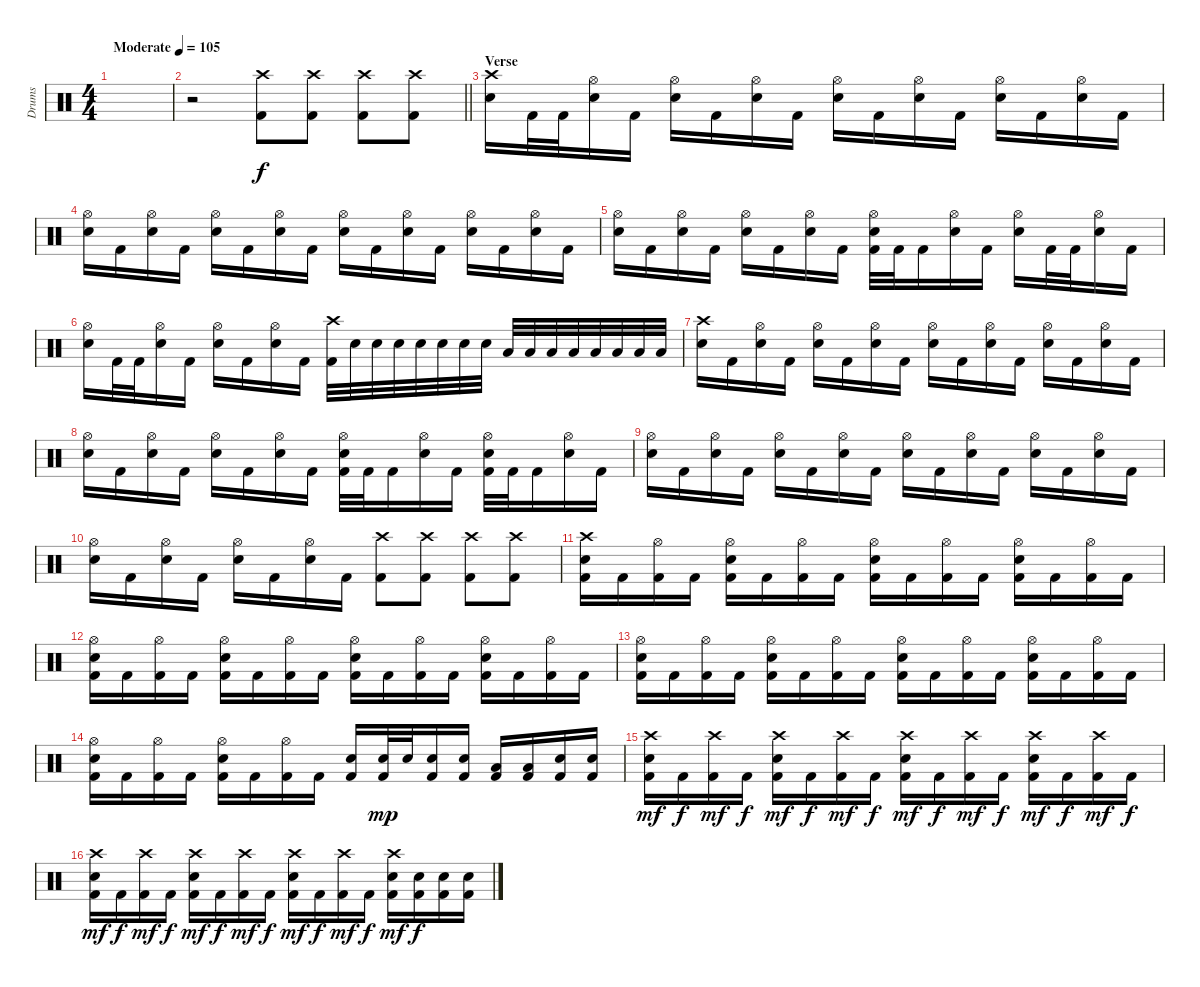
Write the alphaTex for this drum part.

\track ("Drums" "Drums") {instrument percussion}
\staff {score}
\articulation defaults
\ts (4 4)
\tempo (105 "Moderate")
\clef neutral
\ks c
|
\barLineRight lightlight
r.2 ("Crash high (hit)" "Kick (hit) 2").8 ("Crash high (hit)" "Kick (hit) 2").8 ("Crash high (hit)" "Kick (hit) 2").8 ("Crash high (hit)" "Kick (hit) 2").8 |
\section ("" "Verse")
("Crash high (hit)" "Electric Snare (hit)").16 "Kick (hit) 2".32 "Kick (hit) 2".32 ("Hi-Hat (open)" "Electric Snare (hit)").16 "Kick (hit) 2".16 ("Hi-Hat (open)" "Electric Snare (hit)").16 "Kick (hit) 2".16 ("Hi-Hat (open)" "Electric Snare (hit)").16 "Kick (hit) 2".16 ("Hi-Hat (open)" "Electric Snare (hit)").16 "Kick (hit) 2".16 ("Hi-Hat (open)" "Electric Snare (hit)").16 "Kick (hit) 2".16 ("Hi-Hat (open)" "Electric Snare (hit)").16 "Kick (hit) 2".16 ("Hi-Hat (open)" "Electric Snare (hit)").16 "Kick (hit) 2".16 |
("Hi-Hat (open)" "Electric Snare (hit)").16 "Kick (hit) 2".16 ("Hi-Hat (open)" "Electric Snare (hit)").16 "Kick (hit) 2".16 ("Hi-Hat (open)" "Electric Snare (hit)").16 "Kick (hit) 2".16 ("Hi-Hat (open)" "Electric Snare (hit)").16 "Kick (hit) 2".16 ("Hi-Hat (open)" "Electric Snare (hit)").16 "Kick (hit) 2".16 ("Hi-Hat (open)" "Electric Snare (hit)").16 "Kick (hit) 2".16 ("Hi-Hat (open)" "Electric Snare (hit)").16 "Kick (hit) 2".16 ("Hi-Hat (open)" "Electric Snare (hit)").16 "Kick (hit) 2".16 |
("Hi-Hat (open)" "Electric Snare (hit)").16 "Kick (hit) 2".16 ("Hi-Hat (open)" "Electric Snare (hit)").16 "Kick (hit) 2".16 ("Hi-Hat (open)" "Electric Snare (hit)").16 "Kick (hit) 2".16 ("Hi-Hat (open)" "Electric Snare (hit)").16 "Kick (hit) 2".16 ("Hi-Hat (open)" "Electric Snare (hit)" "Kick (hit) 2").32 "Kick (hit) 2".32 "Kick (hit) 2".16 ("Hi-Hat (open)" "Electric Snare (hit)").16 "Kick (hit) 2".16 ("Hi-Hat (open)" "Electric Snare (hit)").16 "Kick (hit) 2".32 "Kick (hit) 2".32 ("Hi-Hat (open)" "Electric Snare (hit)").16 "Kick (hit) 2".16 |
("Hi-Hat (open)" "Electric Snare (hit)").16 "Kick (hit) 2".32 "Kick (hit) 2".32 ("Hi-Hat (open)" "Electric Snare (hit)").16 "Kick (hit) 2".16 ("Hi-Hat (open)" "Electric Snare (hit)").16 "Kick (hit) 2".16 ("Hi-Hat (open)" "Electric Snare (hit)").16 "Kick (hit) 2".16 ("Crash high (hit)" "Kick (hit) 2").32 "Electric Snare (hit)".32 "Electric Snare (hit)".32 "Electric Snare (hit)".32 "Electric Snare (hit)".32 "Electric Snare (hit)".32 "Electric Snare (hit)".32 "Electric Snare (hit)".32 "Low Tom (hit)".32 "Low Tom (hit)".32 "Low Tom (hit)".32 "Low Tom (hit)".32 "Low Tom (hit)".32 "Low Tom (hit)".32 "Low Tom (hit)".32 "Low Tom (hit)".32 |
("Crash high (hit)" "Electric Snare (hit)").16 "Kick (hit) 2".16 ("Hi-Hat (open)" "Electric Snare (hit)").16 "Kick (hit) 2".16 ("Hi-Hat (open)" "Electric Snare (hit)").16 "Kick (hit) 2".16 ("Hi-Hat (open)" "Electric Snare (hit)").16 "Kick (hit) 2".16 ("Hi-Hat (open)" "Electric Snare (hit)").16 "Kick (hit) 2".16 ("Hi-Hat (open)" "Electric Snare (hit)").16 "Kick (hit) 2".16 ("Hi-Hat (open)" "Electric Snare (hit)").16 "Kick (hit) 2".16 ("Hi-Hat (open)" "Electric Snare (hit)").16 "Kick (hit) 2".16 |
("Hi-Hat (open)" "Electric Snare (hit)").16 "Kick (hit) 2".16 ("Hi-Hat (open)" "Electric Snare (hit)").16 "Kick (hit) 2".16 ("Hi-Hat (open)" "Electric Snare (hit)").16 "Kick (hit) 2".16 ("Hi-Hat (open)" "Electric Snare (hit)").16 "Kick (hit) 2".16 ("Hi-Hat (open)" "Electric Snare (hit)" "Kick (hit) 2").32 "Kick (hit) 2".32 "Kick (hit) 2".16 ("Hi-Hat (open)" "Electric Snare (hit)").16 "Kick (hit) 2".16 ("Hi-Hat (open)" "Electric Snare (hit)" "Kick (hit) 2").32 "Kick (hit) 2".32 "Kick (hit) 2".16 ("Hi-Hat (open)" "Electric Snare (hit)").16 "Kick (hit) 2".16 |
("Hi-Hat (open)" "Electric Snare (hit)").16 "Kick (hit) 2".16 ("Hi-Hat (open)" "Electric Snare (hit)").16 "Kick (hit) 2".16 ("Hi-Hat (open)" "Electric Snare (hit)").16 "Kick (hit) 2".16 ("Hi-Hat (open)" "Electric Snare (hit)").16 "Kick (hit) 2".16 ("Hi-Hat (open)" "Electric Snare (hit)").16 "Kick (hit) 2".16 ("Hi-Hat (open)" "Electric Snare (hit)").16 "Kick (hit) 2".16 ("Hi-Hat (open)" "Electric Snare (hit)").16 "Kick (hit) 2".16 ("Hi-Hat (open)" "Electric Snare (hit)").16 "Kick (hit) 2".16 |
("Hi-Hat (open)" "Electric Snare (hit)").16 "Kick (hit) 2".16 ("Hi-Hat (open)" "Electric Snare (hit)").16 "Kick (hit) 2".16 ("Hi-Hat (open)" "Electric Snare (hit)").16 "Kick (hit) 2".16 ("Hi-Hat (open)" "Electric Snare (hit)").16 "Kick (hit) 2".16 ("Crash high (hit)" "Kick (hit) 2").8 ("Crash high (hit)" "Kick (hit) 2").8 ("Crash high (hit)" "Kick (hit) 2").8 ("Crash high (hit)" "Kick (hit) 2").8 |
("Crash high (hit)" "Electric Snare (hit)" "Kick (hit) 2").16 "Kick (hit) 2".16 ("Hi-Hat (open)" "Kick (hit) 2").16 "Kick (hit) 2".16 ("Hi-Hat (open)" "Electric Snare (hit)" "Kick (hit) 2").16 "Kick (hit) 2".16 ("Hi-Hat (open)" "Kick (hit) 2").16 "Kick (hit) 2".16 ("Hi-Hat (open)" "Electric Snare (hit)" "Kick (hit) 2").16 "Kick (hit) 2".16 ("Hi-Hat (open)" "Kick (hit) 2").16 "Kick (hit) 2".16 ("Hi-Hat (open)" "Electric Snare (hit)" "Kick (hit) 2").16 "Kick (hit) 2".16 ("Hi-Hat (open)" "Kick (hit) 2").16 "Kick (hit) 2".16 |
("Hi-Hat (open)" "Electric Snare (hit)" "Kick (hit) 2").16 "Kick (hit) 2".16 ("Hi-Hat (open)" "Kick (hit) 2").16 "Kick (hit) 2".16 ("Hi-Hat (open)" "Electric Snare (hit)" "Kick (hit) 2").16 "Kick (hit) 2".16 ("Hi-Hat (open)" "Kick (hit) 2").16 "Kick (hit) 2".16 ("Hi-Hat (open)" "Electric Snare (hit)" "Kick (hit) 2").16 "Kick (hit) 2".16 ("Hi-Hat (open)" "Kick (hit) 2").16 "Kick (hit) 2".16 ("Hi-Hat (open)" "Electric Snare (hit)" "Kick (hit) 2").16 "Kick (hit) 2".16 ("Hi-Hat (open)" "Kick (hit) 2").16 "Kick (hit) 2".16 |
("Hi-Hat (open)" "Electric Snare (hit)" "Kick (hit) 2").16 "Kick (hit) 2".16 ("Hi-Hat (open)" "Kick (hit) 2").16 "Kick (hit) 2".16 ("Hi-Hat (open)" "Electric Snare (hit)" "Kick (hit) 2").16 "Kick (hit) 2".16 ("Hi-Hat (open)" "Kick (hit) 2").16 "Kick (hit) 2".16 ("Hi-Hat (open)" "Electric Snare (hit)" "Kick (hit) 2").16 "Kick (hit) 2".16 ("Hi-Hat (open)" "Kick (hit) 2").16 "Kick (hit) 2".16 ("Hi-Hat (open)" "Electric Snare (hit)" "Kick (hit) 2").16 "Kick (hit) 2".16 ("Hi-Hat (open)" "Kick (hit) 2").16 "Kick (hit) 2".16 |
("Hi-Hat (open)" "Electric Snare (hit)" "Kick (hit) 2").16 "Kick (hit) 2".16 ("Hi-Hat (open)" "Kick (hit) 2").16 "Kick (hit) 2".16 ("Hi-Hat (open)" "Electric Snare (hit)" "Kick (hit) 2").16 "Kick (hit) 2".16 ("Hi-Hat (open)" "Kick (hit) 2").16 "Kick (hit) 2".16 ("Electric Snare (hit)" "Kick (hit) 2").16 ("Electric Snare (hit)" "Kick (hit) 2").32{dy mp} "Electric Snare (hit)".32 ("Electric Snare (hit)" "Kick (hit) 2").16 ("Electric Snare (hit)" "Kick (hit) 2").16 ("Low Tom (hit)" "Kick (hit) 2").16 ("Low Tom (hit)" "Kick (hit) 2").16 ("Electric Snare (hit)" "Kick (hit) 2").16 ("Electric Snare (hit)" "Kick (hit) 2").16 |
("Crash high (hit)" "Electric Snare (hit)" "Kick (hit) 2").16{dy mf} "Kick (hit) 2".16{dy f} ("Crash high (hit)" "Kick (hit) 2").16{dy mf} "Kick (hit) 2".16{dy f} ("Crash high (hit)" "Electric Snare (hit)" "Kick (hit) 2").16{dy mf} "Kick (hit) 2".16{dy f} ("Crash high (hit)" "Kick (hit) 2").16{dy mf} "Kick (hit) 2".16{dy f} ("Crash high (hit)" "Electric Snare (hit)" "Kick (hit) 2").16{dy mf} "Kick (hit) 2".16{dy f} ("Crash high (hit)" "Kick (hit) 2").16{dy mf} "Kick (hit) 2".16{dy f} ("Crash high (hit)" "Electric Snare (hit)" "Kick (hit) 2").16{dy mf} "Kick (hit) 2".16{dy f} ("Crash high (hit)" "Kick (hit) 2").16{dy mf} "Kick (hit) 2".16{dy f} |
("Crash high (hit)" "Electric Snare (hit)" "Kick (hit) 2").16{dy mf} "Kick (hit) 2".16{dy f} ("Crash high (hit)" "Kick (hit) 2").16{dy mf} "Kick (hit) 2".16{dy f} ("Crash high (hit)" "Electric Snare (hit)" "Kick (hit) 2").16{dy mf} "Kick (hit) 2".16{dy f} ("Crash high (hit)" "Kick (hit) 2").16{dy mf} "Kick (hit) 2".16{dy f} ("Crash high (hit)" "Electric Snare (hit)" "Kick (hit) 2").16{dy mf} "Kick (hit) 2".16{dy f} ("Crash high (hit)" "Kick (hit) 2").16{dy mf} "Kick (hit) 2".16{dy f} ("Crash high (hit)" "Electric Snare (hit)" "Kick (hit) 2").16{dy mf} ("Electric Snare (hit)" "Kick (hit) 2").16{dy f} ("Electric Snare (hit)" "Kick (hit) 2").16 ("Electric Snare (hit)" "Kick (hit) 2").16
